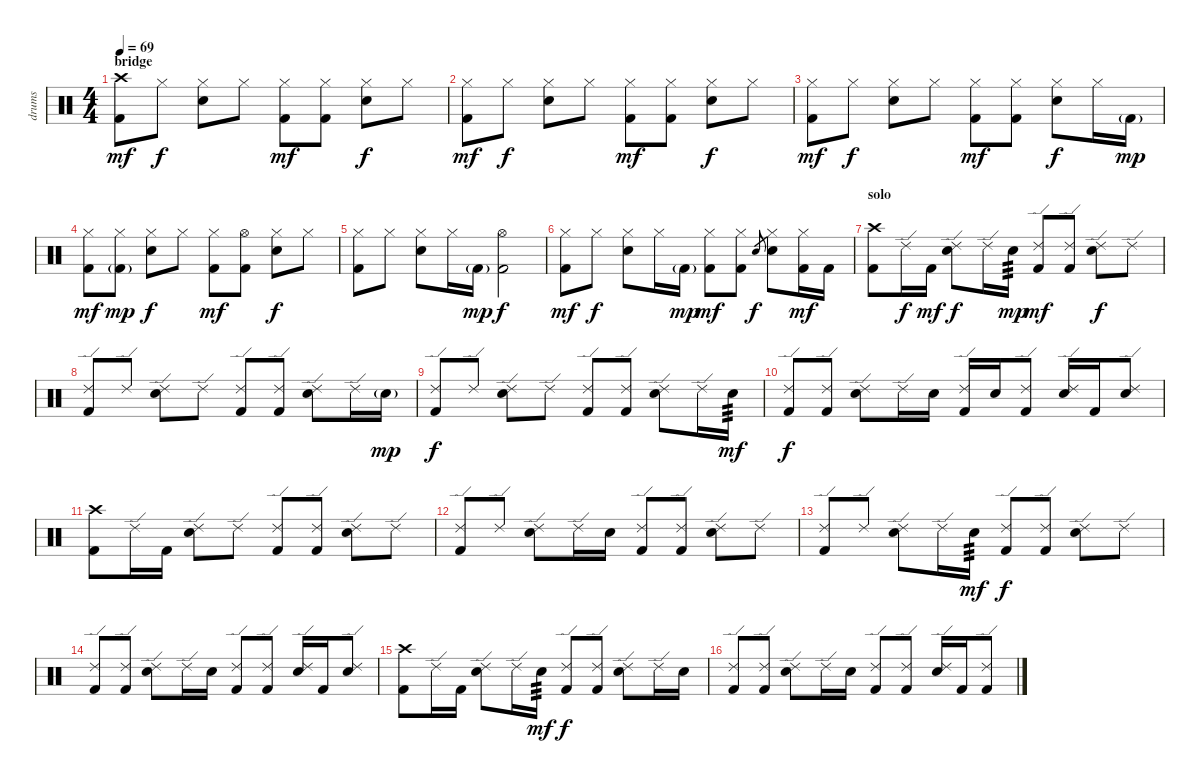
\track ("drums" "drums") {instrument percussion}
\staff {score}
\articulation defaults
\ts (4 4)
\section ("" "bridge")
\tempo 69
\clef neutral
\ks c
("Crash high (hit)" "Kick (hit) 2").8{dy mf} "Hi-Hat (closed)".8{dy f} ("Hi-Hat (closed)" "Electric Snare (hit)").8 "Hi-Hat (closed)".8 ("Hi-Hat (closed)" "Kick (hit) 2").8{dy mf} ("Hi-Hat (closed)" "Kick (hit) 2").8 ("Hi-Hat (closed)" "Electric Snare (hit)").8{dy f} "Hi-Hat (closed)".8 |
("Hi-Hat (closed)" "Kick (hit) 2").8{dy mf} "Hi-Hat (closed)".8{dy f} ("Hi-Hat (closed)" "Electric Snare (hit)").8 "Hi-Hat (closed)".8 ("Hi-Hat (closed)" "Kick (hit) 2").8{dy mf} ("Hi-Hat (closed)" "Kick (hit) 2").8 ("Hi-Hat (closed)" "Electric Snare (hit)").8{dy f} "Hi-Hat (closed)".8 |
("Hi-Hat (closed)" "Kick (hit) 2").8{dy mf} "Hi-Hat (closed)".8{dy f} ("Hi-Hat (closed)" "Electric Snare (hit)").8 "Hi-Hat (closed)".8 ("Hi-Hat (closed)" "Kick (hit) 2").8{dy mf} ("Hi-Hat (closed)" "Kick (hit) 2").8 ("Hi-Hat (closed)" "Electric Snare (hit)").8{dy f} "Hi-Hat (closed)".16 "Kick (hit) 2"{g}.16{dy mp} |
("Hi-Hat (closed)" "Kick (hit) 2").8{dy mf} ("Hi-Hat (closed)" "Kick (hit) 2"{g}).8{dy mp} ("Hi-Hat (closed)" "Electric Snare (hit)").8{dy f} "Hi-Hat (closed)".8 ("Hi-Hat (closed)" "Kick (hit) 2").8{dy mf} ("Hi-Hat (open)" "Kick (hit) 2").8 ("Hi-Hat (closed)" "Electric Snare (hit)").8{dy f} "Hi-Hat (closed)".8 |
("Hi-Hat (closed)" "Kick (hit) 2").8 "Hi-Hat (closed)".8 ("Hi-Hat (closed)" "Electric Snare (hit)").8 "Hi-Hat (closed)".16 "Kick (hit) 2"{g}.16{dy mp} ("Hi-Hat (open)" "Kick (hit) 2").2{dy f} |
("Hi-Hat (closed)" "Kick (hit) 2").8{dy mf} "Hi-Hat (closed)".8{dy f} ("Hi-Hat (closed)" "Electric Snare (hit)").8 "Hi-Hat (closed)".16 "Kick (hit) 2"{g}.16{dy mp} ("Hi-Hat (closed)" "Kick (hit) 2").8{dy mf} ("Hi-Hat (closed)" "Kick (hit) 2").8 "Electric Snare (hit)".8{gr dy f} ("Hi-Hat (closed)" "Electric Snare (hit)").8 ("Hi-Hat (closed)" "Kick (hit) 2").16{dy mf} "Kick (hit) 2".16 |
\section ("" "solo")
("Crash high (hit)" "Kick (hit) 2").8 "Ride (edge) 2".16{dy f} "Kick (hit) 2".16{dy mf} ("Ride (edge) 2" "Electric Snare (hit)").8{dy f} "Ride (edge) 2".16 "Electric Snare (hit)".16{tp 3 dy mp} ("Ride (edge) 2" "Kick (hit) 2").8{dy mf} ("Ride (edge) 2" "Kick (hit) 2").8 ("Ride (edge) 2" "Electric Snare (hit)").8{dy f} "Ride (edge) 2".8 |
("Ride (edge) 2" "Kick (hit) 2").8 "Ride (edge) 2".8 ("Ride (edge) 2" "Electric Snare (hit)").8 "Ride (edge) 2".8 ("Ride (edge) 2" "Kick (hit) 2").8 ("Ride (edge) 2" "Kick (hit) 2").8 ("Ride (edge) 2" "Electric Snare (hit)").8 "Ride (edge) 2".16 "Electric Snare (hit)"{g}.16{dy mp} |
("Ride (edge) 2" "Kick (hit) 2").8{dy f} "Ride (edge) 2".8 ("Ride (edge) 2" "Electric Snare (hit)").8 "Ride (edge) 2".8 ("Ride (edge) 2" "Kick (hit) 2").8 ("Ride (edge) 2" "Kick (hit) 2").8 ("Ride (edge) 2" "Electric Snare (hit)").8 "Ride (edge) 2".16 "Electric Snare (hit)".16{tp 3 dy mf} |
("Ride (edge) 2" "Kick (hit) 2").8{dy f} ("Ride (edge) 2" "Kick (hit) 2").8 ("Ride (edge) 2" "Electric Snare (hit)").8 "Ride (edge) 2".16 "Electric Snare (hit)".16 ("Ride (edge) 2" "Kick (hit) 2").16 "Electric Snare (hit)".16 ("Ride (edge) 2" "Kick (hit) 2").8 ("Ride (edge) 2" "Electric Snare (hit)").16 "Kick (hit) 2".16 ("Ride (edge) 2" "Electric Snare (hit)").8 |
("Crash high (hit)" "Kick (hit) 2").8 "Ride (edge) 2".16 "Kick (hit) 2".16 ("Ride (edge) 2" "Electric Snare (hit)").8 "Ride (edge) 2".8 ("Ride (edge) 2" "Kick (hit) 2").8 ("Ride (edge) 2" "Kick (hit) 2").8 ("Ride (edge) 2" "Electric Snare (hit)").8 "Ride (edge) 2".8 |
("Ride (edge) 2" "Kick (hit) 2").8 "Ride (edge) 2".8 ("Ride (edge) 2" "Electric Snare (hit)").8 "Ride (edge) 2".16 "Electric Snare (hit)".16 ("Ride (edge) 2" "Kick (hit) 2").8 ("Ride (edge) 2" "Kick (hit) 2").8 ("Ride (edge) 2" "Electric Snare (hit)").8 "Ride (edge) 2".8 |
("Ride (edge) 2" "Kick (hit) 2").8 "Ride (edge) 2".8 ("Ride (edge) 2" "Electric Snare (hit)").8 "Ride (edge) 2".16 "Electric Snare (hit)".16{tp 3 dy mf} ("Ride (edge) 2" "Kick (hit) 2").8{dy f} ("Ride (edge) 2" "Kick (hit) 2").8 ("Ride (edge) 2" "Electric Snare (hit)").8 "Ride (edge) 2".8 |
("Ride (edge) 2" "Kick (hit) 2").8 ("Ride (edge) 2" "Kick (hit) 2").8 ("Ride (edge) 2" "Electric Snare (hit)").8 "Ride (edge) 2".16 "Electric Snare (hit)".16 ("Ride (edge) 2" "Kick (hit) 2").8 ("Ride (edge) 2" "Kick (hit) 2").8 ("Ride (edge) 2" "Electric Snare (hit)").16 "Kick (hit) 2".16 ("Ride (edge) 2" "Electric Snare (hit)").8 |
("Crash high (hit)" "Kick (hit) 2").8 "Ride (edge) 2".16 "Kick (hit) 2".16 ("Ride (edge) 2" "Electric Snare (hit)").8 "Ride (edge) 2".16 "Electric Snare (hit)".16{tp 3 dy mf} ("Ride (edge) 2" "Kick (hit) 2").8{dy f} ("Ride (edge) 2" "Kick (hit) 2").8 ("Ride (edge) 2" "Electric Snare (hit)").8 "Ride (edge) 2".16 "Electric Snare (hit)".16 |
("Ride (edge) 2" "Kick (hit) 2").8 ("Ride (edge) 2" "Kick (hit) 2").8 ("Ride (edge) 2" "Electric Snare (hit)").8 "Ride (edge) 2".16 "Electric Snare (hit)".16 ("Ride (edge) 2" "Kick (hit) 2").8 ("Ride (edge) 2" "Kick (hit) 2").8 ("Ride (edge) 2" "Electric Snare (hit)").16 "Kick (hit) 2".16 ("Ride (edge) 2" "Kick (hit) 2").8
